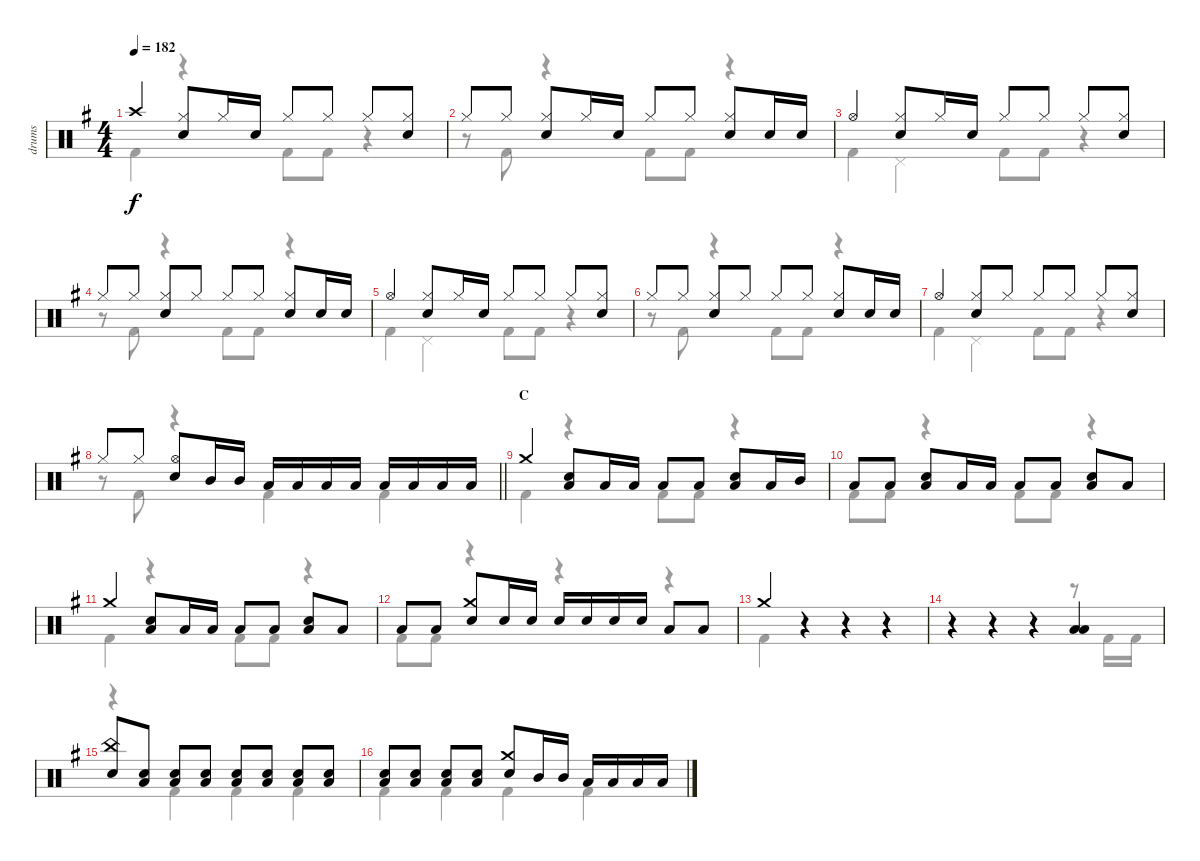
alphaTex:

\track ("drums" "drums") {instrument percussion}
\staff {score}
\articulation defaults
\voice
\ts (4 4)
\tempo 182
\clef neutral
\ks g "Crash high (hit)".4{dy f}
("Hi-Hat (closed)" "Snare (hit) 2").8 "Hi-Hat (closed)".16 "Snare (hit) 2".16 "Hi-Hat (closed)".8 "Hi-Hat (closed)".8 "Hi-Hat (closed)".8 ("Hi-Hat (closed)" "Snare (hit) 2").8 |
"Hi-Hat (closed)".8 "Hi-Hat (closed)".8 ("Hi-Hat (closed)" "Snare (hit) 2").8 "Hi-Hat (closed)".16 "Snare (hit) 2".16 "Hi-Hat (closed)".8 "Hi-Hat (closed)".8 ("Hi-Hat (closed)" "Snare (hit) 2").8 "Snare (hit) 2".16 "Snare (hit) 2".16 |
"Hi-Hat (open)".4 ("Hi-Hat (closed)" "Snare (hit) 2").8 "Hi-Hat (closed)".16 "Snare (hit) 2".16 "Hi-Hat (closed)".8 "Hi-Hat (closed)".8 "Hi-Hat (closed)".8 ("Hi-Hat (closed)" "Snare (hit) 2").8 |
"Hi-Hat (closed)".8 "Hi-Hat (closed)".8 ("Hi-Hat (closed)" "Snare (hit) 2").8 "Hi-Hat (closed)".8 "Hi-Hat (closed)".8 "Hi-Hat (closed)".8 ("Hi-Hat (closed)" "Snare (hit) 2").8 "Snare (hit) 2".16 "Snare (hit) 2".16 |
"Hi-Hat (open)".4 ("Hi-Hat (closed)" "Snare (hit) 2").8 "Hi-Hat (closed)".16 "Snare (hit) 2".16 "Hi-Hat (closed)".8 "Hi-Hat (closed)".8 "Hi-Hat (closed)".8 ("Hi-Hat (closed)" "Snare (hit) 2").8 |
"Hi-Hat (closed)".8 "Hi-Hat (closed)".8 ("Hi-Hat (closed)" "Snare (hit) 2").8 "Hi-Hat (closed)".8 "Hi-Hat (closed)".8 "Hi-Hat (closed)".8 ("Hi-Hat (closed)" "Snare (hit) 2").8 "Snare (hit) 2".16 "Snare (hit) 2".16 |
"Hi-Hat (open)".4 ("Hi-Hat (closed)" "Snare (hit) 2").8 "Hi-Hat (closed)".8 "Hi-Hat (closed)".8 "Hi-Hat (closed)".8 "Hi-Hat (closed)".8 ("Hi-Hat (closed)" "Snare (hit) 2").8 |
\barLineRight lightlight "Hi-Hat (closed)".8 "Hi-Hat (closed)".8
("Hi-Hat (open)" "Snare (hit) 2").8 "Mid Tom (hit)".16 "Mid Tom (hit)".16 "Low Tom (hit)".16 "Low Tom (hit)".16 "Low Tom (hit)".16 "Low Tom (hit)".16 "Low Floor Tom (hit)".16 "Low Floor Tom (hit)".16 "Low Floor Tom (hit)".16 "Low Floor Tom (hit)".16 |
\section ("" "C")
"Crash medium (hit)".4 ("Snare (hit) 2" "Low Floor Tom (hit)").8 "Low Floor Tom (hit)".16 "Low Tom (hit)".16 "Low Floor Tom (hit)".8 "Low Floor Tom (hit)".8 ("Snare (hit) 2" "Low Floor Tom (hit)").8 "Low Floor Tom (hit)".16 "Mid Tom (hit)".16 |
"Low Floor Tom (hit)".8 "Low Floor Tom (hit)".8 ("Snare (hit) 2" "Low Floor Tom (hit)").8 "Low Floor Tom (hit)".16 "Low Tom (hit)".16 "Low Floor Tom (hit)".8 "Low Floor Tom (hit)".8 ("Snare (hit) 2" "Low Floor Tom (hit)").8 "Low Floor Tom (hit)".8 |
"Crash medium (hit)".4 ("Snare (hit) 2" "Low Floor Tom (hit)").8 "Low Floor Tom (hit)".16 "Low Tom (hit)".16 "Low Floor Tom (hit)".8 "Low Floor Tom (hit)".8 ("Snare (hit) 2" "Low Floor Tom (hit)").8 "Low Floor Tom (hit)".8 |
"Low Floor Tom (hit)".8 "Low Floor Tom (hit)".8 ("Crash medium (hit)" "Snare (hit) 2").8 "Snare (hit) 2".16 "Snare (hit) 2".16 "Snare (hit) 2".16 "Snare (hit) 2".16 "Snare (hit) 2".16 "Snare (hit) 2".16 "Low Tom (hit)".8 "Low Floor Tom (hit)".8 |
"Crash medium (hit)".4 r.4 r.4 r.4 |
r.4 r.4 r.4 ("Low Tom (hit)" "Low Floor Tom (hit)").4 |
("China (hit)" "Snare (hit) 2").8 ("Snare (hit) 2" "Low Floor Tom (hit)").8 ("Snare (hit) 2" "Low Floor Tom (hit)").8 ("Snare (hit) 2" "Low Floor Tom (hit)").8 ("Snare (hit) 2" "Low Floor Tom (hit)").8 ("Snare (hit) 2" "Low Floor Tom (hit)").8 ("Snare (hit) 2" "Low Floor Tom (hit)").8 ("Snare (hit) 2" "Low Floor Tom (hit)").8 |
("Snare (hit) 2" "Low Floor Tom (hit)").8 ("Snare (hit) 2" "Low Floor Tom (hit)").8 ("Snare (hit) 2" "Low Floor Tom (hit)").8 ("Snare (hit) 2" "Low Floor Tom (hit)").8 ("Crash medium (hit)" "Snare (hit) 2").8 "Mid Tom (hit)".16 "Mid Tom (hit)".16 "Low Tom (hit)".16 "Low Tom (hit)".16 "Low Floor Tom (hit)".16 "Low Floor Tom (hit)".16
\voice
\clef neutral
\ottava regular
\simile none
\ks g "Kick (hit) 2".4{dy f}
r.4 "Kick (hit) 2".8 "Kick (hit) 2".8 r.4 |
r.8 "Kick (hit) 2".8 r.4 "Kick (hit) 2".8 "Kick (hit) 2".8 r.4 |
"Kick (hit) 2".4 "Pedal Hi-Hat (hit)".4 "Kick (hit) 2".8 "Kick (hit) 2".8 r.4 |
r.8 "Kick (hit) 2".8 r.4 "Kick (hit) 2".8 "Kick (hit) 2".8 r.4 |
"Kick (hit) 2".4 "Pedal Hi-Hat (hit)".4 "Kick (hit) 2".8 "Kick (hit) 2".8 r.4 |
r.8 "Kick (hit) 2".8 r.4 "Kick (hit) 2".8 "Kick (hit) 2".8 r.4 |
"Kick (hit) 2".4 "Pedal Hi-Hat (hit)".4 "Kick (hit) 2".8 "Kick (hit) 2".8 r.4 |
\barLineRight lightlight
r.8 "Kick (hit) 2".8 r.4 "Kick (hit) 2".4 "Kick (hit) 2".4 |
"Kick (hit) 2".4 r.4 "Kick (hit) 2".8 "Kick (hit) 2".8 r.4 |
"Kick (hit) 2".8 "Kick (hit) 2".8 r.4 "Kick (hit) 2".8 "Kick (hit) 2".8 r.4 |
"Kick (hit) 2".4 r.4 "Kick (hit) 2".8 "Kick (hit) 2".8 r.4 |
"Kick (hit) 2".8 "Kick (hit) 2".8 r.4 r.4 r.4 |
"Kick (hit) 2".4 r.4 r.4 r.4 |
r.4 r.4 r.4 r.8 "Kick (hit) 2".16 "Kick (hit) 2".16 |
r.4 "Kick (hit) 2".4 "Kick (hit) 2".4 "Kick (hit) 2".4 |
"Kick (hit) 2".4 "Kick (hit) 2".4 "Kick (hit) 2".4 "Kick (hit) 2".4
